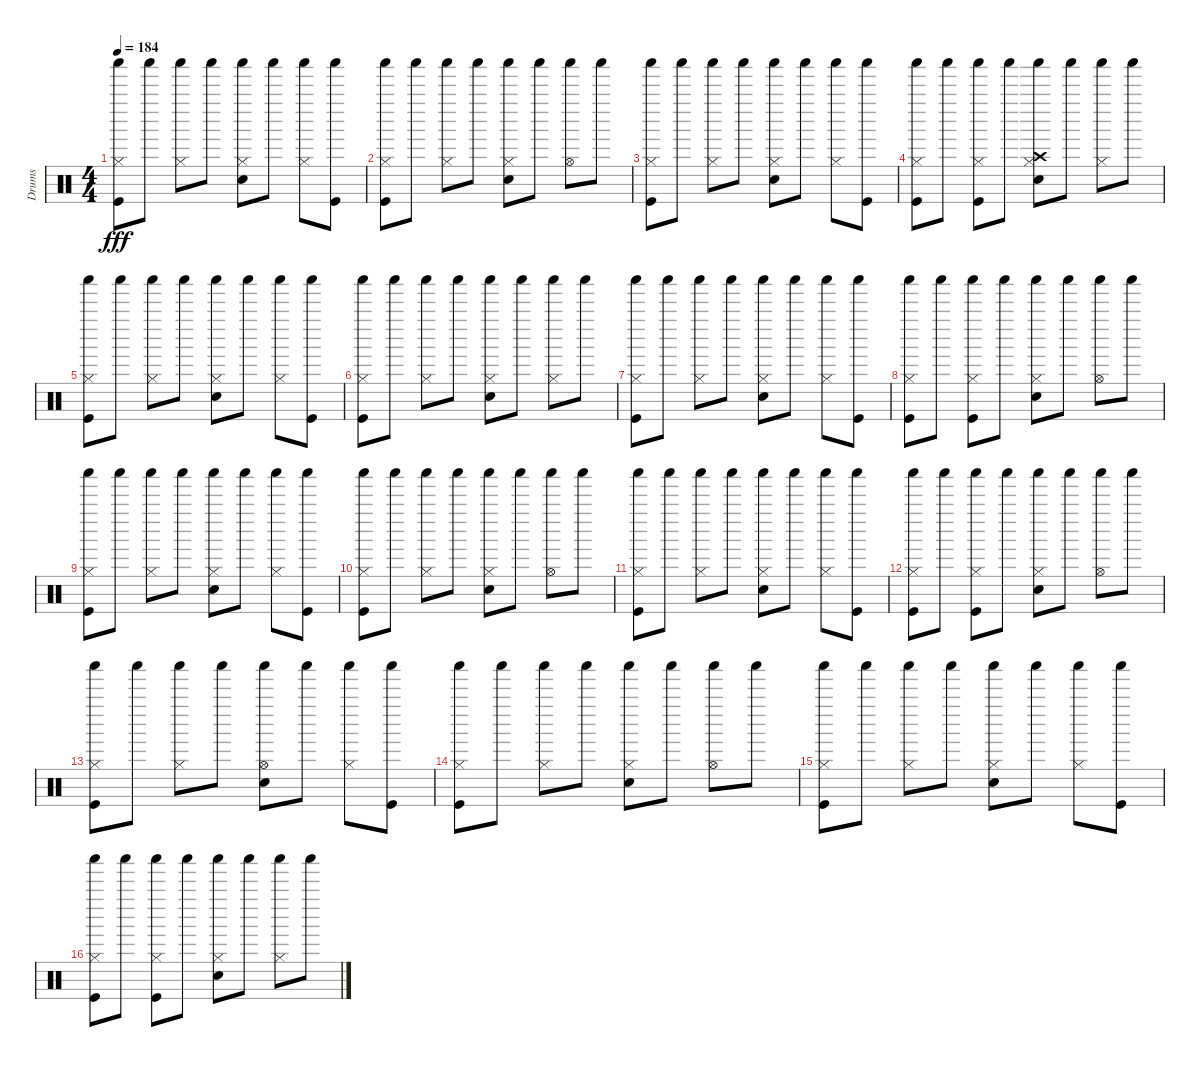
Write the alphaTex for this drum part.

\track ("Drums" "Drums") {instrument percussion}
\staff {score}
\articulation defaults
\ts (4 4)
\tempo 184
\clef neutral
\ks c
("Hi-Hat (closed)" "Shaker (hit)" "Kick (hit)").8{dy fff} "Shaker (hit)".8 ("Hi-Hat (closed)" "Shaker (hit)").8 "Shaker (hit)".8 ("Hi-Hat (closed)" "Shaker (hit)" "Snare (hit) 2").8 "Shaker (hit)".8 ("Hi-Hat (closed)" "Shaker (hit)").8 ("Shaker (hit)" "Kick (hit)").8 |
("Hi-Hat (closed)" "Shaker (hit)" "Kick (hit)").8 "Shaker (hit)".8 ("Hi-Hat (closed)" "Shaker (hit)").8 "Shaker (hit)".8 ("Hi-Hat (closed)" "Shaker (hit)" "Snare (hit) 2").8 "Shaker (hit)".8 ("Hi-Hat (open)" "Shaker (hit)").8 "Shaker (hit)".8 |
("Hi-Hat (closed)" "Shaker (hit)" "Kick (hit)").8 "Shaker (hit)".8 ("Hi-Hat (closed)" "Shaker (hit)").8 "Shaker (hit)".8 ("Hi-Hat (closed)" "Shaker (hit)" "Snare (hit) 2").8 "Shaker (hit)".8 ("Hi-Hat (closed)" "Shaker (hit)").8 ("Shaker (hit)" "Kick (hit)").8 |
("Hi-Hat (closed)" "Shaker (hit)" "Kick (hit)").8 "Shaker (hit)".8 ("Hi-Hat (closed)" "Shaker (hit)" "Kick (hit)").8 "Shaker (hit)".8 ("Hi-Hat (closed)" "Shaker (hit)" "Crash high (hit)" "Snare (hit) 2").8 "Shaker (hit)".8 ("Hi-Hat (closed)" "Shaker (hit)").8 "Shaker (hit)".8 |
("Hi-Hat (closed)" "Shaker (hit)" "Kick (hit)").8 "Shaker (hit)".8 ("Hi-Hat (closed)" "Shaker (hit)").8 "Shaker (hit)".8 ("Hi-Hat (closed)" "Shaker (hit)" "Snare (hit) 2").8 "Shaker (hit)".8 ("Hi-Hat (closed)" "Shaker (hit)").8 ("Shaker (hit)" "Kick (hit)").8 |
("Hi-Hat (closed)" "Shaker (hit)" "Kick (hit)").8 "Shaker (hit)".8 ("Hi-Hat (closed)" "Shaker (hit)").8 "Shaker (hit)".8 ("Hi-Hat (closed)" "Shaker (hit)" "Snare (hit) 2").8 "Shaker (hit)".8 ("Hi-Hat (closed)" "Shaker (hit)").8 "Shaker (hit)".8 |
("Hi-Hat (closed)" "Shaker (hit)" "Kick (hit)").8 "Shaker (hit)".8 ("Hi-Hat (closed)" "Shaker (hit)").8 "Shaker (hit)".8 ("Hi-Hat (closed)" "Shaker (hit)" "Snare (hit) 2").8 "Shaker (hit)".8 ("Hi-Hat (closed)" "Shaker (hit)").8 ("Shaker (hit)" "Kick (hit)").8 |
("Hi-Hat (closed)" "Shaker (hit)" "Kick (hit)").8 "Shaker (hit)".8 ("Hi-Hat (closed)" "Shaker (hit)" "Kick (hit)").8 "Shaker (hit)".8 ("Hi-Hat (closed)" "Shaker (hit)" "Snare (hit) 2").8 "Shaker (hit)".8 ("Hi-Hat (open)" "Shaker (hit)").8 "Shaker (hit)".8 |
("Hi-Hat (closed)" "Shaker (hit)" "Kick (hit)").8 "Shaker (hit)".8 ("Hi-Hat (closed)" "Shaker (hit)").8 "Shaker (hit)".8 ("Hi-Hat (closed)" "Shaker (hit)" "Snare (hit) 2").8 "Shaker (hit)".8 ("Hi-Hat (closed)" "Shaker (hit)").8 ("Shaker (hit)" "Kick (hit)").8 |
("Hi-Hat (closed)" "Shaker (hit)" "Kick (hit)").8 "Shaker (hit)".8 ("Hi-Hat (closed)" "Shaker (hit)").8 "Shaker (hit)".8 ("Hi-Hat (closed)" "Shaker (hit)" "Snare (hit) 2").8 "Shaker (hit)".8 ("Hi-Hat (open)" "Shaker (hit)").8 "Shaker (hit)".8 |
("Hi-Hat (closed)" "Shaker (hit)" "Kick (hit)").8 "Shaker (hit)".8 ("Hi-Hat (closed)" "Shaker (hit)").8 "Shaker (hit)".8 ("Hi-Hat (closed)" "Shaker (hit)" "Snare (hit) 2").8 "Shaker (hit)".8 ("Hi-Hat (closed)" "Shaker (hit)").8 ("Shaker (hit)" "Kick (hit)").8 |
("Hi-Hat (closed)" "Shaker (hit)" "Kick (hit)").8 "Shaker (hit)".8 ("Hi-Hat (closed)" "Shaker (hit)" "Kick (hit)").8 "Shaker (hit)".8 ("Hi-Hat (closed)" "Shaker (hit)" "Snare (hit) 2").8 "Shaker (hit)".8 ("Hi-Hat (open)" "Shaker (hit)").8 "Shaker (hit)".8 |
("Hi-Hat (closed)" "Shaker (hit)" "Kick (hit)").8 "Shaker (hit)".8 ("Hi-Hat (closed)" "Shaker (hit)").8 "Shaker (hit)".8 ("Hi-Hat (open)" "Shaker (hit)" "Snare (hit) 2").8 "Shaker (hit)".8 ("Hi-Hat (closed)" "Shaker (hit)").8 ("Shaker (hit)" "Kick (hit)").8 |
("Hi-Hat (closed)" "Shaker (hit)" "Kick (hit)").8 "Shaker (hit)".8 ("Hi-Hat (closed)" "Shaker (hit)").8 "Shaker (hit)".8 ("Hi-Hat (closed)" "Shaker (hit)" "Snare (hit) 2").8 "Shaker (hit)".8 ("Hi-Hat (open)" "Shaker (hit)").8 "Shaker (hit)".8 |
("Hi-Hat (closed)" "Shaker (hit)" "Kick (hit)").8 "Shaker (hit)".8 ("Hi-Hat (closed)" "Shaker (hit)").8 "Shaker (hit)".8 ("Hi-Hat (closed)" "Shaker (hit)" "Snare (hit) 2").8 "Shaker (hit)".8 ("Hi-Hat (closed)" "Shaker (hit)").8 ("Shaker (hit)" "Kick (hit)").8 |
("Hi-Hat (closed)" "Shaker (hit)" "Kick (hit)").8 "Shaker (hit)".8 ("Hi-Hat (closed)" "Shaker (hit)" "Kick (hit)").8 "Shaker (hit)".8 ("Hi-Hat (closed)" "Shaker (hit)" "Snare (hit) 2").8 "Shaker (hit)".8 ("Hi-Hat (closed)" "Shaker (hit)").8 "Shaker (hit)".8
